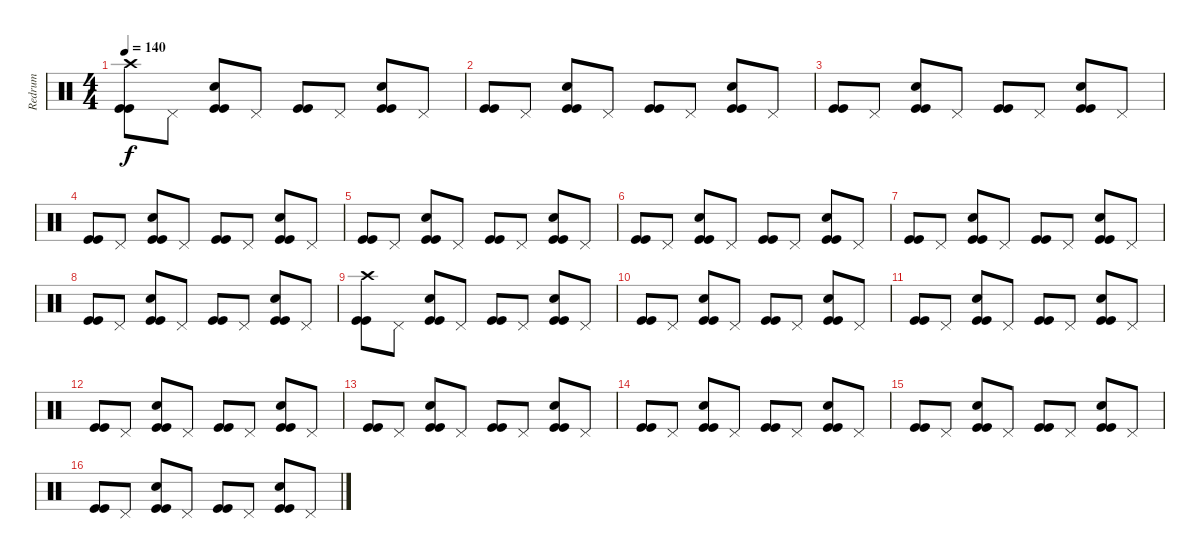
\track ("Redrum" "Redrum") {instrument percussion}
\staff {score}
\articulation defaults
\ts (4 4)
\tempo 140
\clef neutral
\ks c
("Crash high (hit)" "Kick (hit)" "Kick (hit)").8{dy f} "Pedal Hi-Hat (hit)".8 ("Hand Clap (hit)" "Kick (hit)" "Kick (hit)").8 "Pedal Hi-Hat (hit)".8 ("Kick (hit)" "Kick (hit)").8 "Pedal Hi-Hat (hit)".8 ("Hand Clap (hit)" "Kick (hit)" "Kick (hit)").8 "Pedal Hi-Hat (hit)".8 |
("Kick (hit)" "Kick (hit)").8 "Pedal Hi-Hat (hit)".8 ("Hand Clap (hit)" "Kick (hit)" "Kick (hit)").8 "Pedal Hi-Hat (hit)".8 ("Kick (hit)" "Kick (hit)").8 "Pedal Hi-Hat (hit)".8 ("Hand Clap (hit)" "Kick (hit)" "Kick (hit)").8 "Pedal Hi-Hat (hit)".8 |
("Kick (hit)" "Kick (hit)").8 "Pedal Hi-Hat (hit)".8 ("Hand Clap (hit)" "Kick (hit)" "Kick (hit)").8 "Pedal Hi-Hat (hit)".8 ("Kick (hit)" "Kick (hit)").8 "Pedal Hi-Hat (hit)".8 ("Hand Clap (hit)" "Kick (hit)" "Kick (hit)").8 "Pedal Hi-Hat (hit)".8 |
("Kick (hit)" "Kick (hit)").8 "Pedal Hi-Hat (hit)".8 ("Hand Clap (hit)" "Kick (hit)" "Kick (hit)").8 "Pedal Hi-Hat (hit)".8 ("Kick (hit)" "Kick (hit)").8 "Pedal Hi-Hat (hit)".8 ("Hand Clap (hit)" "Kick (hit)" "Kick (hit)").8 "Pedal Hi-Hat (hit)".8 |
("Kick (hit)" "Kick (hit)").8 "Pedal Hi-Hat (hit)".8 ("Hand Clap (hit)" "Kick (hit)" "Kick (hit)").8 "Pedal Hi-Hat (hit)".8 ("Kick (hit)" "Kick (hit)").8 "Pedal Hi-Hat (hit)".8 ("Hand Clap (hit)" "Kick (hit)" "Kick (hit)").8 "Pedal Hi-Hat (hit)".8 |
("Kick (hit)" "Kick (hit)").8 "Pedal Hi-Hat (hit)".8 ("Hand Clap (hit)" "Kick (hit)" "Kick (hit)").8 "Pedal Hi-Hat (hit)".8 ("Kick (hit)" "Kick (hit)").8 "Pedal Hi-Hat (hit)".8 ("Hand Clap (hit)" "Kick (hit)" "Kick (hit)").8 "Pedal Hi-Hat (hit)".8 |
("Kick (hit)" "Kick (hit)").8 "Pedal Hi-Hat (hit)".8 ("Hand Clap (hit)" "Kick (hit)" "Kick (hit)").8 "Pedal Hi-Hat (hit)".8 ("Kick (hit)" "Kick (hit)").8 "Pedal Hi-Hat (hit)".8 ("Hand Clap (hit)" "Kick (hit)" "Kick (hit)").8 "Pedal Hi-Hat (hit)".8 |
("Kick (hit)" "Kick (hit)").8 "Pedal Hi-Hat (hit)".8 ("Hand Clap (hit)" "Kick (hit)" "Kick (hit)").8 "Pedal Hi-Hat (hit)".8 ("Kick (hit)" "Kick (hit)").8 "Pedal Hi-Hat (hit)".8 ("Hand Clap (hit)" "Kick (hit)" "Kick (hit)").8 "Pedal Hi-Hat (hit)".8 |
("Crash high (hit)" "Kick (hit)" "Kick (hit)").8 "Pedal Hi-Hat (hit)".8 ("Hand Clap (hit)" "Kick (hit)" "Kick (hit)").8 "Pedal Hi-Hat (hit)".8 ("Kick (hit)" "Kick (hit)").8 "Pedal Hi-Hat (hit)".8 ("Hand Clap (hit)" "Kick (hit)" "Kick (hit)").8 "Pedal Hi-Hat (hit)".8 |
("Kick (hit)" "Kick (hit)").8 "Pedal Hi-Hat (hit)".8 ("Hand Clap (hit)" "Kick (hit)" "Kick (hit)").8 "Pedal Hi-Hat (hit)".8 ("Kick (hit)" "Kick (hit)").8 "Pedal Hi-Hat (hit)".8 ("Hand Clap (hit)" "Kick (hit)" "Kick (hit)").8 "Pedal Hi-Hat (hit)".8 |
("Kick (hit)" "Kick (hit)").8 "Pedal Hi-Hat (hit)".8 ("Hand Clap (hit)" "Kick (hit)" "Kick (hit)").8 "Pedal Hi-Hat (hit)".8 ("Kick (hit)" "Kick (hit)").8 "Pedal Hi-Hat (hit)".8 ("Hand Clap (hit)" "Kick (hit)" "Kick (hit)").8 "Pedal Hi-Hat (hit)".8 |
("Kick (hit)" "Kick (hit)").8 "Pedal Hi-Hat (hit)".8 ("Hand Clap (hit)" "Kick (hit)" "Kick (hit)").8 "Pedal Hi-Hat (hit)".8 ("Kick (hit)" "Kick (hit)").8 "Pedal Hi-Hat (hit)".8 ("Hand Clap (hit)" "Kick (hit)" "Kick (hit)").8 "Pedal Hi-Hat (hit)".8 |
("Kick (hit)" "Kick (hit)").8 "Pedal Hi-Hat (hit)".8 ("Hand Clap (hit)" "Kick (hit)" "Kick (hit)").8 "Pedal Hi-Hat (hit)".8 ("Kick (hit)" "Kick (hit)").8 "Pedal Hi-Hat (hit)".8 ("Hand Clap (hit)" "Kick (hit)" "Kick (hit)").8 "Pedal Hi-Hat (hit)".8 |
("Kick (hit)" "Kick (hit)").8 "Pedal Hi-Hat (hit)".8 ("Hand Clap (hit)" "Kick (hit)" "Kick (hit)").8 "Pedal Hi-Hat (hit)".8 ("Kick (hit)" "Kick (hit)").8 "Pedal Hi-Hat (hit)".8 ("Hand Clap (hit)" "Kick (hit)" "Kick (hit)").8 "Pedal Hi-Hat (hit)".8 |
("Kick (hit)" "Kick (hit)").8 "Pedal Hi-Hat (hit)".8 ("Hand Clap (hit)" "Kick (hit)" "Kick (hit)").8 "Pedal Hi-Hat (hit)".8 ("Kick (hit)" "Kick (hit)").8 "Pedal Hi-Hat (hit)".8 ("Hand Clap (hit)" "Kick (hit)" "Kick (hit)").8 "Pedal Hi-Hat (hit)".8 |
("Kick (hit)" "Kick (hit)").8 "Pedal Hi-Hat (hit)".8 ("Hand Clap (hit)" "Kick (hit)" "Kick (hit)").8 "Pedal Hi-Hat (hit)".8 ("Kick (hit)" "Kick (hit)").8 "Pedal Hi-Hat (hit)".8 ("Hand Clap (hit)" "Kick (hit)" "Kick (hit)").8 "Pedal Hi-Hat (hit)".8
